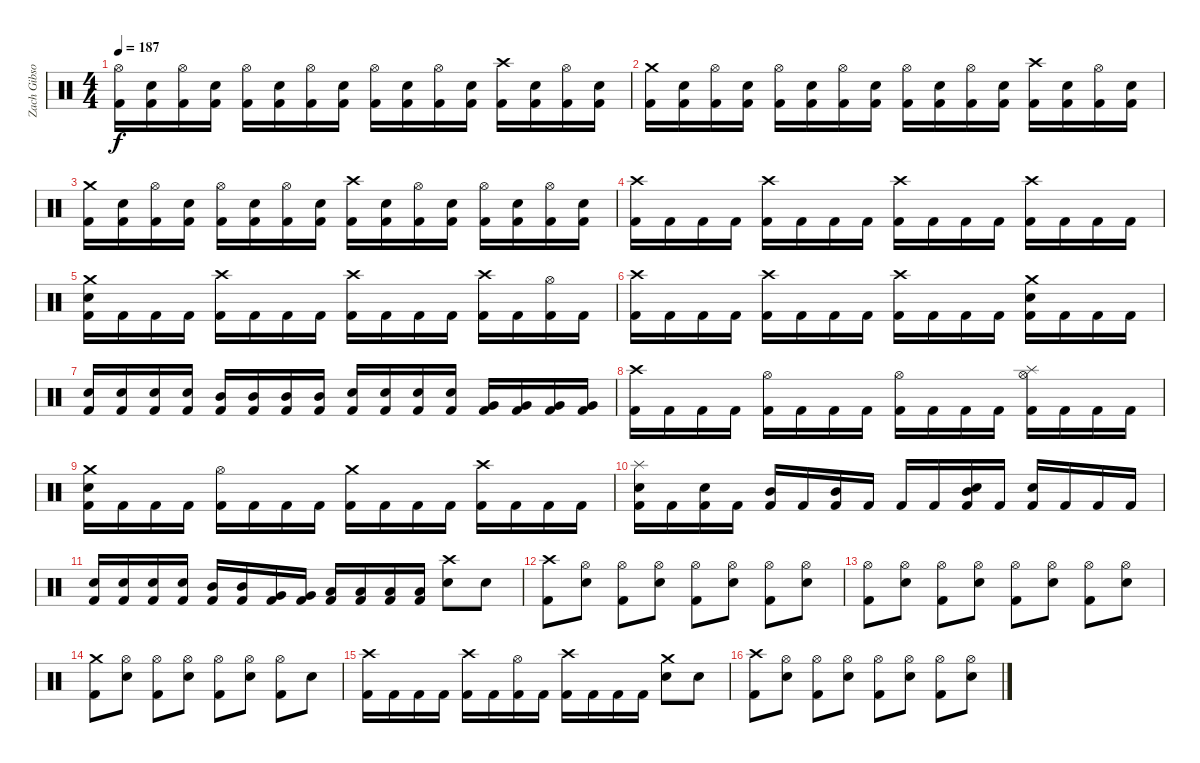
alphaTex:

\track ("Zach Gibson (Ex-Drums)" "Zach Gibso") {instrument percussion}
\staff {score}
\articulation defaults
\ts (4 4)
\tempo 187
\clef neutral
\ks c
("Hi-Hat (open)" "Kick (hit) 2").16{dy f} ("Snare (hit) 2" "Kick (hit) 2").16 ("Hi-Hat (open)" "Kick (hit) 2").16 ("Snare (hit) 2" "Kick (hit) 2").16 ("Hi-Hat (open)" "Kick (hit) 2").16 ("Snare (hit) 2" "Kick (hit) 2").16 ("Hi-Hat (open)" "Kick (hit) 2").16 ("Snare (hit) 2" "Kick (hit) 2").16 ("Hi-Hat (open)" "Kick (hit) 2").16 ("Snare (hit) 2" "Kick (hit) 2").16 ("Hi-Hat (open)" "Kick (hit) 2").16 ("Snare (hit) 2" "Kick (hit) 2").16 ("Crash high (hit)" "Kick (hit) 2").16 ("Snare (hit) 2" "Kick (hit) 2").16 ("Hi-Hat (open)" "Kick (hit) 2").16 ("Snare (hit) 2" "Kick (hit) 2").16 |
("Crash medium (hit)" "Kick (hit) 2").16 ("Snare (hit) 2" "Kick (hit) 2").16 ("Hi-Hat (open)" "Kick (hit) 2").16 ("Snare (hit) 2" "Kick (hit) 2").16 ("Hi-Hat (open)" "Kick (hit) 2").16 ("Snare (hit) 2" "Kick (hit) 2").16 ("Hi-Hat (open)" "Kick (hit) 2").16 ("Snare (hit) 2" "Kick (hit) 2").16 ("Hi-Hat (open)" "Kick (hit) 2").16 ("Snare (hit) 2" "Kick (hit) 2").16 ("Hi-Hat (open)" "Kick (hit) 2").16 ("Snare (hit) 2" "Kick (hit) 2").16 ("Crash high (hit)" "Kick (hit) 2").16 ("Snare (hit) 2" "Kick (hit) 2").16 ("Hi-Hat (open)" "Kick (hit) 2").16 ("Snare (hit) 2" "Kick (hit) 2").16 |
("Crash medium (hit)" "Kick (hit) 2").16 ("Snare (hit) 2" "Kick (hit) 2").16 ("Hi-Hat (open)" "Kick (hit) 2").16 ("Snare (hit) 2" "Kick (hit) 2").16 ("Hi-Hat (open)" "Kick (hit) 2").16 ("Snare (hit) 2" "Kick (hit) 2").16 ("Hi-Hat (open)" "Kick (hit) 2").16 ("Snare (hit) 2" "Kick (hit) 2").16 ("Crash high (hit)" "Kick (hit) 2").16 ("Snare (hit) 2" "Kick (hit) 2").16 ("Hi-Hat (open)" "Kick (hit) 2").16 ("Snare (hit) 2" "Kick (hit) 2").16 ("Hi-Hat (open)" "Kick (hit) 2").16 ("Snare (hit) 2" "Kick (hit) 2").16 ("Hi-Hat (open)" "Kick (hit) 2").16 ("Snare (hit) 2" "Kick (hit) 2").16 |
("Crash high (hit)" "Kick (hit) 2").16 "Kick (hit) 2".16 "Kick (hit) 2".16 "Kick (hit) 2".16 ("Crash high (hit)" "Kick (hit) 2").16 "Kick (hit) 2".16 "Kick (hit) 2".16 "Kick (hit) 2".16 ("Crash high (hit)" "Kick (hit) 2").16 "Kick (hit) 2".16 "Kick (hit) 2".16 "Kick (hit) 2".16 ("Crash high (hit)" "Kick (hit) 2").16 "Kick (hit) 2".16 "Kick (hit) 2".16 "Kick (hit) 2".16 |
("Snare (hit) 2" "Crash medium (hit)" "Kick (hit) 2").16 "Kick (hit) 2".16 "Kick (hit) 2".16 "Kick (hit) 2".16 ("Crash high (hit)" "Kick (hit) 2").16 "Kick (hit) 2".16 "Kick (hit) 2".16 "Kick (hit) 2".16 ("Crash high (hit)" "Kick (hit) 2").16 "Kick (hit) 2".16 "Kick (hit) 2".16 "Kick (hit) 2".16 ("Crash high (hit)" "Kick (hit) 2").16 "Kick (hit) 2".16 ("Hi-Hat (open)" "Kick (hit) 2").16 "Kick (hit) 2".16 |
("Crash high (hit)" "Kick (hit) 2").16 "Kick (hit) 2".16 "Kick (hit) 2".16 "Kick (hit) 2".16 ("Crash high (hit)" "Kick (hit) 2").16 "Kick (hit) 2".16 "Kick (hit) 2".16 "Kick (hit) 2".16 ("Crash high (hit)" "Kick (hit) 2").16 "Kick (hit) 2".16 "Kick (hit) 2".16 "Kick (hit) 2".16 ("Snare (hit) 2" "Crash medium (hit)" "Kick (hit) 2").16 "Kick (hit) 2".16 "Kick (hit) 2".16 "Kick (hit) 2".16 |
("Snare (hit) 2" "Kick (hit) 2").16 ("Snare (hit) 2" "Kick (hit) 2").16 ("Snare (hit) 2" "Kick (hit) 2").16 ("Snare (hit) 2" "Kick (hit) 2").16 ("Mid Tom (hit)" "Kick (hit) 2").16 ("Mid Tom (hit)" "Kick (hit) 2").16 ("Mid Tom (hit)" "Kick (hit) 2").16 ("Mid Tom (hit)" "Kick (hit) 2").16 ("Snare (hit) 2" "Kick (hit) 2").16 ("Snare (hit) 2" "Kick (hit) 2").16 ("Snare (hit) 2" "Kick (hit) 2").16 ("Snare (hit) 2" "Kick (hit) 2").16 ("Very Low Tom (hit)" "Kick (hit) 2").16 ("Very Low Tom (hit)" "Kick (hit) 2").16 ("Very Low Tom (hit)" "Kick (hit) 2").16 ("Very Low Tom (hit)" "Kick (hit) 2").16 |
("Crash high (hit)" "Kick (hit) 2").16 "Kick (hit) 2".16 "Kick (hit) 2".16 "Kick (hit) 2".16 ("Hi-Hat (open)" "Kick (hit) 2").16 "Kick (hit) 2".16 "Kick (hit) 2".16 "Kick (hit) 2".16 ("Hi-Hat (open)" "Kick (hit) 2").16 "Kick (hit) 2".16 "Kick (hit) 2".16 "Kick (hit) 2".16 ("Splash (hit)" "Hi-Hat (open)" "Kick (hit) 2").16 "Kick (hit) 2".16 "Kick (hit) 2".16 "Kick (hit) 2".16 |
("Snare (hit) 2" "Crash medium (hit)" "Kick (hit) 2").16 "Kick (hit) 2".16 "Kick (hit) 2".16 "Kick (hit) 2".16 ("Hi-Hat (open)" "Kick (hit) 2").16 "Kick (hit) 2".16 "Kick (hit) 2".16 "Kick (hit) 2".16 ("Crash medium (hit)" "Kick (hit) 2").16 "Kick (hit) 2".16 "Kick (hit) 2".16 "Kick (hit) 2".16 ("Crash high (hit)" "Kick (hit) 2").16 "Kick (hit) 2".16 "Kick (hit) 2".16 "Kick (hit) 2".16 |
("Splash (hit)" "Snare (hit) 2" "Kick (hit) 2").16 "Kick (hit) 2".16 ("Snare (hit) 2" "Kick (hit) 2").16 "Kick (hit) 2".16 ("Mid Tom (hit)" "Kick (hit) 2").16 "Kick (hit) 2".16 ("Mid Tom (hit)" "Kick (hit) 2").16 "Kick (hit) 2".16 "Kick (hit) 2".16 "Kick (hit) 2".16 ("Mid Tom (hit)" "Snare (hit) 2" "Kick (hit) 2").16 "Kick (hit) 2".16 ("Snare (hit) 2" "Kick (hit) 2").16 "Kick (hit) 2".16 "Kick (hit) 2".16 "Kick (hit) 2".16 |
("Kick (hit) 2" "Snare (hit) 2").16 ("Kick (hit) 2" "Snare (hit) 2").16 ("Kick (hit) 2" "Snare (hit) 2").16 ("Kick (hit) 2" "Snare (hit) 2").16 ("Kick (hit) 2" "Mid Tom (hit)").16 ("Kick (hit) 2" "Mid Tom (hit)").16 ("Kick (hit) 2" "Very Low Tom (hit)").16 ("Kick (hit) 2" "Very Low Tom (hit)").16 ("Low Floor Tom (hit)" "Kick (hit) 2").16 ("Low Floor Tom (hit)" "Kick (hit) 2").16 ("Low Floor Tom (hit)" "Kick (hit) 2").16 ("Low Floor Tom (hit)" "Kick (hit) 2").16 ("Crash high (hit)" "Snare (hit) 2").8 "Snare (hit) 2".8 |
("Crash high (hit)" "Kick (hit) 2").8 ("Hi-Hat (open)" "Snare (hit) 2").8 ("Hi-Hat (open)" "Kick (hit) 2").8 ("Hi-Hat (open)" "Snare (hit) 2").8 ("Hi-Hat (open)" "Kick (hit) 2").8 ("Hi-Hat (open)" "Snare (hit) 2").8 ("Hi-Hat (open)" "Kick (hit) 2").8 ("Hi-Hat (open)" "Snare (hit) 2").8 |
("Hi-Hat (open)" "Kick (hit) 2").8 ("Hi-Hat (open)" "Snare (hit) 2").8 ("Hi-Hat (open)" "Kick (hit) 2").8 ("Hi-Hat (open)" "Snare (hit) 2").8 ("Hi-Hat (open)" "Kick (hit) 2").8 ("Hi-Hat (open)" "Snare (hit) 2").8 ("Hi-Hat (open)" "Kick (hit) 2").8 ("Hi-Hat (open)" "Snare (hit) 2").8 |
("Crash medium (hit)" "Kick (hit) 2").8 ("Hi-Hat (open)" "Snare (hit) 2").8 ("Hi-Hat (open)" "Kick (hit) 2").8 ("Hi-Hat (open)" "Snare (hit) 2").8 ("Hi-Hat (open)" "Kick (hit) 2").8 ("Hi-Hat (open)" "Snare (hit) 2").8 ("Hi-Hat (open)" "Kick (hit) 2").8 "Snare (hit) 2".8 |
("Crash high (hit)" "Kick (hit) 2").16 "Kick (hit) 2".16 "Kick (hit) 2".16 "Kick (hit) 2".16 ("Crash high (hit)" "Kick (hit) 2").16 "Kick (hit) 2".16 ("Hi-Hat (open)" "Kick (hit) 2").16 "Kick (hit) 2".16 ("Crash high (hit)" "Kick (hit) 2").16 "Kick (hit) 2".16 "Kick (hit) 2".16 "Kick (hit) 2".16 ("Crash medium (hit)" "Snare (hit) 2").8 "Snare (hit) 2".8 |
("Crash high (hit)" "Kick (hit) 2").8 ("Hi-Hat (open)" "Snare (hit) 2").8 ("Hi-Hat (open)" "Kick (hit) 2").8 ("Hi-Hat (open)" "Snare (hit) 2").8 ("Hi-Hat (open)" "Kick (hit) 2").8 ("Hi-Hat (open)" "Snare (hit) 2").8 ("Hi-Hat (open)" "Kick (hit) 2").8 ("Hi-Hat (open)" "Snare (hit) 2").8
